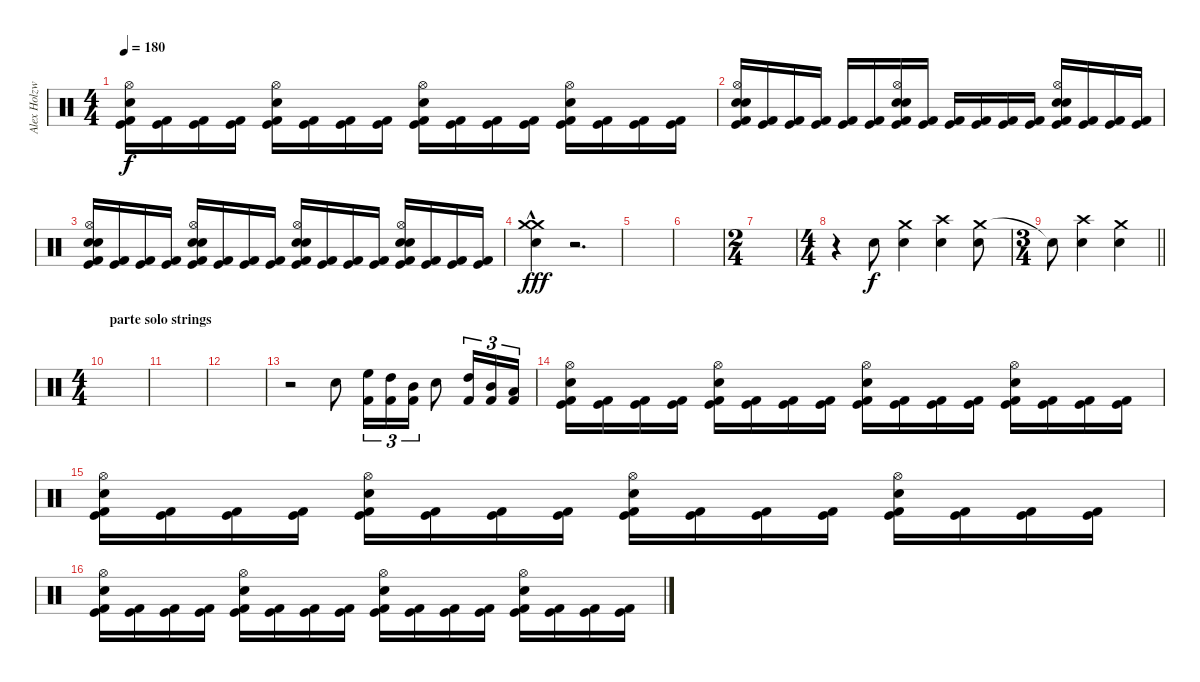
\track ("Alex Holzwarth" "Alex Holzw") {instrument percussion}
\staff {score}
\articulation defaults
\ts (4 4)
\tempo 180
\clef neutral
\ks c
("Kick (hit) 2" "Kick (hit)" "Snare (hit) 2" "Hi-Hat (open)").16{dy f} ("Kick (hit) 2" "Kick (hit)").16 ("Kick (hit) 2" "Kick (hit)").16 ("Kick (hit) 2" "Kick (hit)").16 ("Kick (hit) 2" "Kick (hit)" "Hi-Hat (open)" "Snare (hit) 2").16 ("Kick (hit) 2" "Kick (hit)").16 ("Kick (hit) 2" "Kick (hit)").16 ("Kick (hit) 2" "Kick (hit)").16 ("Kick (hit) 2" "Kick (hit)" "Hi-Hat (open)" "Snare (hit) 2").16 ("Kick (hit) 2" "Kick (hit)").16 ("Kick (hit) 2" "Kick (hit)").16 ("Kick (hit) 2" "Kick (hit)").16 ("Kick (hit) 2" "Kick (hit)" "Hi-Hat (open)" "Snare (hit) 2").16 ("Kick (hit) 2" "Kick (hit)").16 ("Kick (hit) 2" "Kick (hit)").16 ("Kick (hit) 2" "Kick (hit)").16 |
("Kick (hit) 2" "Kick (hit)" "Snare (hit) 2" "Electric Snare (hit)" "Hi-Hat (open)").16 ("Kick (hit) 2" "Kick (hit)").16 ("Kick (hit) 2" "Kick (hit)").16 ("Kick (hit) 2" "Kick (hit)").16 ("Kick (hit) 2" "Kick (hit)").16 ("Kick (hit) 2" "Kick (hit)").16 ("Kick (hit) 2" "Kick (hit)" "Snare (hit) 2" "Electric Snare (hit)" "Hi-Hat (open)").16 ("Kick (hit) 2" "Kick (hit)").16 ("Kick (hit) 2" "Kick (hit)").16 ("Kick (hit) 2" "Kick (hit)").16 ("Kick (hit) 2" "Kick (hit)").16 ("Kick (hit) 2" "Kick (hit)").16 ("Kick (hit) 2" "Kick (hit)" "Snare (hit) 2" "Electric Snare (hit)" "Hi-Hat (open)").16 ("Kick (hit) 2" "Kick (hit)").16 ("Kick (hit) 2" "Kick (hit)").16 ("Kick (hit) 2" "Kick (hit)").16 |
("Kick (hit) 2" "Kick (hit)" "Snare (hit) 2" "Electric Snare (hit)" "Hi-Hat (open)").16 ("Kick (hit) 2" "Kick (hit)").16 ("Kick (hit) 2" "Kick (hit)").16 ("Kick (hit) 2" "Kick (hit)").16 ("Kick (hit) 2" "Kick (hit)" "Snare (hit) 2" "Electric Snare (hit)" "Hi-Hat (open)").16 ("Kick (hit) 2" "Kick (hit)").16 ("Kick (hit) 2" "Kick (hit)").16 ("Kick (hit) 2" "Kick (hit)").16 ("Kick (hit) 2" "Kick (hit)" "Hi-Hat (open)" "Snare (hit) 2" "Electric Snare (hit)").16 ("Kick (hit) 2" "Kick (hit)").16 ("Kick (hit) 2" "Kick (hit)").16 ("Kick (hit) 2" "Kick (hit)").16 ("Kick (hit) 2" "Kick (hit)" "Snare (hit) 2" "Electric Snare (hit)" "Hi-Hat (open)").16 ("Kick (hit) 2" "Kick (hit)").16 ("Kick (hit) 2" "Kick (hit)").16 ("Kick (hit) 2" "Kick (hit)").16 |
("Crash medium (hit)"{hac} "Snare (hit) 2" "Crash medium (hit)"{hac}).4{dy fff volume 13} r.2{d volume 0} |
|
|
\ts (2 4)
|
\ts (4 4)
r.4 "Snare (hit) 2".8{dy f} ("Crash medium (hit)" "Snare (hit) 2").4 ("Crash high (hit)" "Snare (hit) 2").4 ("Crash medium (hit)" "Snare (hit) 2").8 |
\ts (3 4)
\barLineRight lightlight "Snare (hit)"{t}.8
("Crash high (hit)" "Snare (hit) 2").4 ("Crash medium (hit)" "Snare (hit) 2").4 |
\ts (4 4)
\section ("" "parte solo strings")
|
|
|
r.2 "Snare (hit) 2".8 ("Kick (hit) 2" "High Floor Tom (hit)").16{tu (3 2)} ("Kick (hit) 2" "High Tom (hit)").16{tu (3 2)} ("Kick (hit) 2" "Mid Tom (hit)").16{tu (3 2)} "Snare (hit) 2".8 ("Kick (hit) 2" "High Tom (hit)").16{tu (3 2)} ("Kick (hit) 2" "Mid Tom (hit)").16{tu (3 2)} ("Kick (hit) 2" "Low Tom (hit)").16{tu (3 2)} |
("Kick (hit) 2" "Kick (hit)" "Snare (hit) 2" "Hi-Hat (open)").16 ("Kick (hit) 2" "Kick (hit)").16 ("Kick (hit) 2" "Kick (hit)").16 ("Kick (hit) 2" "Kick (hit)").16 ("Kick (hit) 2" "Kick (hit)" "Hi-Hat (open)" "Snare (hit) 2").16 ("Kick (hit) 2" "Kick (hit)").16 ("Kick (hit) 2" "Kick (hit)").16 ("Kick (hit) 2" "Kick (hit)").16 ("Kick (hit) 2" "Kick (hit)" "Hi-Hat (open)" "Snare (hit) 2").16 ("Kick (hit) 2" "Kick (hit)").16 ("Kick (hit) 2" "Kick (hit)").16 ("Kick (hit) 2" "Kick (hit)").16 ("Kick (hit) 2" "Kick (hit)" "Hi-Hat (open)" "Snare (hit) 2").16 ("Kick (hit) 2" "Kick (hit)").16 ("Kick (hit) 2" "Kick (hit)").16 ("Kick (hit) 2" "Kick (hit)").16 |
("Kick (hit) 2" "Kick (hit)" "Snare (hit) 2" "Hi-Hat (open)").16 ("Kick (hit) 2" "Kick (hit)").16 ("Kick (hit) 2" "Kick (hit)").16 ("Kick (hit) 2" "Kick (hit)").16 ("Kick (hit) 2" "Kick (hit)" "Hi-Hat (open)" "Snare (hit) 2").16 ("Kick (hit) 2" "Kick (hit)").16 ("Kick (hit) 2" "Kick (hit)").16 ("Kick (hit) 2" "Kick (hit)").16 ("Kick (hit) 2" "Kick (hit)" "Hi-Hat (open)" "Snare (hit) 2").16 ("Kick (hit) 2" "Kick (hit)").16 ("Kick (hit) 2" "Kick (hit)").16 ("Kick (hit) 2" "Kick (hit)").16 ("Kick (hit) 2" "Kick (hit)" "Hi-Hat (open)" "Snare (hit) 2").16 ("Kick (hit) 2" "Kick (hit)").16 ("Kick (hit) 2" "Kick (hit)").16 ("Kick (hit) 2" "Kick (hit)").16 |
("Kick (hit) 2" "Kick (hit)" "Snare (hit) 2" "Hi-Hat (open)").16 ("Kick (hit) 2" "Kick (hit)").16 ("Kick (hit) 2" "Kick (hit)").16 ("Kick (hit) 2" "Kick (hit)").16 ("Kick (hit) 2" "Kick (hit)" "Hi-Hat (open)" "Snare (hit) 2").16 ("Kick (hit) 2" "Kick (hit)").16 ("Kick (hit) 2" "Kick (hit)").16 ("Kick (hit) 2" "Kick (hit)").16 ("Kick (hit) 2" "Kick (hit)" "Hi-Hat (open)" "Snare (hit) 2").16 ("Kick (hit) 2" "Kick (hit)").16 ("Kick (hit) 2" "Kick (hit)").16 ("Kick (hit) 2" "Kick (hit)").16 ("Kick (hit) 2" "Kick (hit)" "Hi-Hat (open)" "Snare (hit) 2").16 ("Kick (hit) 2" "Kick (hit)").16 ("Kick (hit) 2" "Kick (hit)").16 ("Kick (hit) 2" "Kick (hit)").16
